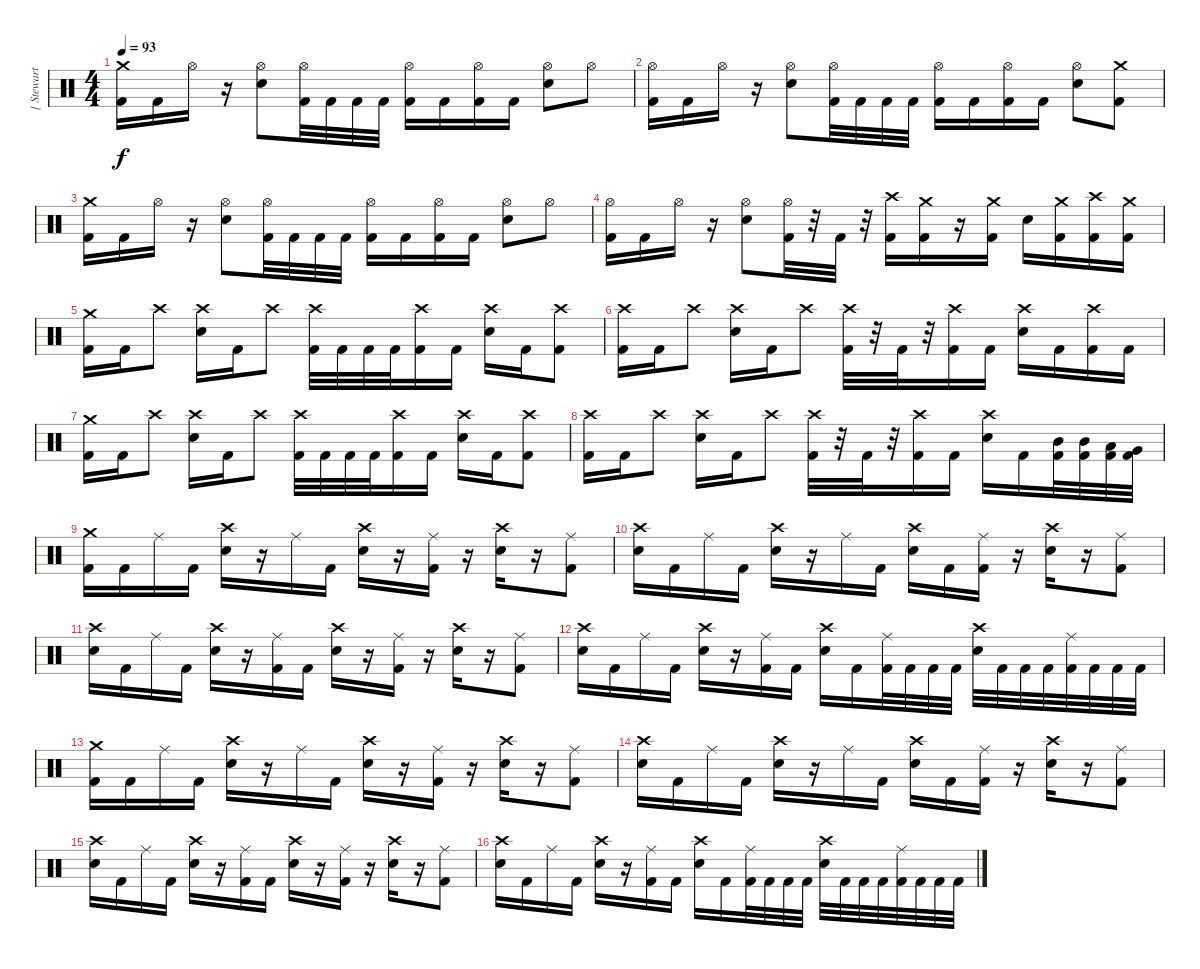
\track ("[ Stewart ]" "[ Stewart ") {instrument percussion}
\staff {score}
\articulation defaults
\ts (4 4)
\tempo 93
\clef neutral
\ks c
("Kick (hit) 2" "Crash medium (hit)").16{dy f} "Kick (hit) 2".16 "Hi-Hat (open)".16 r.16 ("Electric Snare (hit)" "Hi-Hat (open)").8 ("Kick (hit) 2" "Hi-Hat (open)").32 "Kick (hit) 2".32 "Kick (hit) 2".32 "Kick (hit) 2".32 ("Kick (hit) 2" "Hi-Hat (open)").16 "Kick (hit) 2".16 ("Kick (hit) 2" "Hi-Hat (open)").16 "Kick (hit) 2".16 ("Electric Snare (hit)" "Hi-Hat (open)").8 "Hi-Hat (open)".8 |
("Kick (hit) 2" "Hi-Hat (open)").16 "Kick (hit) 2".16 "Hi-Hat (open)".16 r.16 ("Electric Snare (hit)" "Hi-Hat (open)").8 ("Kick (hit) 2" "Hi-Hat (open)").32 "Kick (hit) 2".32 "Kick (hit) 2".32 "Kick (hit) 2".32 ("Kick (hit) 2" "Hi-Hat (open)").16 "Kick (hit) 2".16 ("Kick (hit) 2" "Hi-Hat (open)").16 "Kick (hit) 2".16 ("Electric Snare (hit)" "Hi-Hat (open)").8 ("Kick (hit) 2" "Crash medium (hit)").8 |
("Kick (hit) 2" "Crash medium (hit)").16 "Kick (hit) 2".16 "Hi-Hat (open)".16 r.16 ("Electric Snare (hit)" "Hi-Hat (open)").8 ("Kick (hit) 2" "Hi-Hat (open)").32 "Kick (hit) 2".32 "Kick (hit) 2".32 "Kick (hit) 2".32 ("Kick (hit) 2" "Hi-Hat (open)").16 "Kick (hit) 2".16 ("Kick (hit) 2" "Hi-Hat (open)").16 "Kick (hit) 2".16 ("Electric Snare (hit)" "Hi-Hat (open)").8 "Hi-Hat (open)".8 |
("Kick (hit) 2" "Hi-Hat (open)").16 "Kick (hit) 2".16 "Hi-Hat (open)".16 r.16 ("Electric Snare (hit)" "Hi-Hat (open)").8 ("Kick (hit) 2" "Hi-Hat (open)").32 r.32 "Kick (hit) 2".32 r.32 ("Kick (hit) 2" "Crash high (hit)").16 ("Kick (hit) 2" "Crash medium (hit)").16 r.16 ("Kick (hit) 2" "Crash medium (hit)").16 "Electric Snare (hit)".16 ("Kick (hit) 2" "Crash medium (hit)").16 ("Kick (hit) 2" "Crash high (hit)").16 ("Kick (hit) 2" "Crash medium (hit)").16 |
("Kick (hit) 2" "Crash medium (hit)").16 "Kick (hit) 2".16 "Crash high (hit)".8 ("Electric Snare (hit)" "Crash high (hit)").16 "Kick (hit) 2".16 "Crash high (hit)".8 ("Kick (hit) 2" "Crash high (hit)").32 "Kick (hit) 2".32 "Kick (hit) 2".32 "Kick (hit) 2".32 ("Kick (hit) 2" "Crash high (hit)").16 "Kick (hit) 2".16 ("Electric Snare (hit)" "Crash high (hit)").16 "Kick (hit) 2".16 ("Kick (hit) 2" "Crash high (hit)").8 |
("Kick (hit) 2" "Crash high (hit)").16 "Kick (hit) 2".16 "Crash high (hit)".8 ("Electric Snare (hit)" "Crash high (hit)").16 "Kick (hit) 2".16 "Crash high (hit)".8 ("Kick (hit) 2" "Crash high (hit)").32 r.32 "Kick (hit) 2".32 r.32 ("Kick (hit) 2" "Crash high (hit)").16 "Kick (hit) 2".16 ("Electric Snare (hit)" "Crash high (hit)").16 "Kick (hit) 2".16 ("Kick (hit) 2" "Crash high (hit)").16 "Kick (hit) 2".16 |
("Kick (hit) 2" "Crash medium (hit)").16 "Kick (hit) 2".16 "Crash high (hit)".8 ("Electric Snare (hit)" "Crash high (hit)").16 "Kick (hit) 2".16 "Crash high (hit)".8 ("Kick (hit) 2" "Crash high (hit)").32 "Kick (hit) 2".32 "Kick (hit) 2".32 "Kick (hit) 2".32 ("Kick (hit) 2" "Crash high (hit)").16 "Kick (hit) 2".16 ("Electric Snare (hit)" "Crash high (hit)").16 "Kick (hit) 2".16 ("Kick (hit) 2" "Crash high (hit)").8 |
("Kick (hit) 2" "Crash high (hit)").16 "Kick (hit) 2".16 "Crash high (hit)".8 ("Electric Snare (hit)" "Crash high (hit)").16 "Kick (hit) 2".16 "Crash high (hit)".8 ("Kick (hit) 2" "Crash high (hit)").32 r.32 "Kick (hit) 2".32 r.32 ("Kick (hit) 2" "Crash high (hit)").16 "Kick (hit) 2".16 ("Electric Snare (hit)" "Crash high (hit)").16 "Kick (hit) 2".16 ("Mid Tom (hit)" "Kick (hit) 2").32 ("Mid Tom (hit)" "Kick (hit) 2").32 ("Low Tom (hit)" "Kick (hit) 2").32 ("Very Low Tom (hit)" "Kick (hit) 2").32 |
("Kick (hit) 2" "Crash medium (hit)").16 "Kick (hit) 2".16 "Ride (middle)".16 "Kick (hit) 2".16 ("Electric Snare (hit)" "Crash high (hit)").16 r.16 "Ride (middle)".16 "Kick (hit) 2".16 ("Electric Snare (hit)" "Crash high (hit)").16 r.16 ("Kick (hit) 2" "Ride (middle)").16 r.16 ("Electric Snare (hit)" "Crash high (hit)").16 r.16 ("Kick (hit) 2" "Ride (middle)").8 |
("Electric Snare (hit)" "Crash high (hit)").16 "Kick (hit) 2".16 "Ride (middle)".16 "Kick (hit) 2".16 ("Electric Snare (hit)" "Crash high (hit)").16 r.16 "Ride (middle)".16 "Kick (hit) 2".16 ("Electric Snare (hit)" "Crash high (hit)").16 "Kick (hit) 2".16 ("Kick (hit) 2" "Ride (middle)").16 r.16 ("Electric Snare (hit)" "Crash high (hit)").16 r.16 ("Kick (hit) 2" "Ride (middle)").8 |
("Electric Snare (hit)" "Crash high (hit)").16 "Kick (hit) 2".16 "Ride (middle)".16 "Kick (hit) 2".16 ("Electric Snare (hit)" "Crash high (hit)").16 r.16 ("Kick (hit) 2" "Ride (middle)").16 "Kick (hit) 2".16 ("Electric Snare (hit)" "Crash high (hit)").16 r.16 ("Kick (hit) 2" "Ride (middle)").16 r.16 ("Electric Snare (hit)" "Crash high (hit)").16 r.16 ("Kick (hit) 2" "Ride (middle)").8 |
("Electric Snare (hit)" "Crash high (hit)").16 "Kick (hit) 2".16 "Ride (middle)".16 "Kick (hit) 2".16 ("Electric Snare (hit)" "Crash high (hit)").16 r.16 ("Kick (hit) 2" "Ride (middle)").16 "Kick (hit) 2".16 ("Electric Snare (hit)" "Crash high (hit)").16 "Kick (hit) 2".16 ("Kick (hit) 2" "Ride (middle)").32 "Kick (hit) 2".32 "Kick (hit) 2".32 "Kick (hit) 2".32 ("Electric Snare (hit)" "Crash high (hit)").32 "Kick (hit) 2".32 "Kick (hit) 2".32 "Kick (hit) 2".32 ("Kick (hit) 2" "Ride (middle)").32 "Kick (hit) 2".32 "Kick (hit) 2".32 "Kick (hit) 2".32 |
("Kick (hit) 2" "Crash medium (hit)").16 "Kick (hit) 2".16 "Ride (middle)".16 "Kick (hit) 2".16 ("Electric Snare (hit)" "Crash high (hit)").16 r.16 "Ride (middle)".16 "Kick (hit) 2".16 ("Electric Snare (hit)" "Crash high (hit)").16 r.16 ("Kick (hit) 2" "Ride (middle)").16 r.16 ("Electric Snare (hit)" "Crash high (hit)").16 r.16 ("Kick (hit) 2" "Ride (middle)").8 |
("Electric Snare (hit)" "Crash high (hit)").16 "Kick (hit) 2".16 "Ride (middle)".16 "Kick (hit) 2".16 ("Electric Snare (hit)" "Crash high (hit)").16 r.16 "Ride (middle)".16 "Kick (hit) 2".16 ("Electric Snare (hit)" "Crash high (hit)").16 "Kick (hit) 2".16 ("Kick (hit) 2" "Ride (middle)").16 r.16 ("Electric Snare (hit)" "Crash high (hit)").16 r.16 ("Kick (hit) 2" "Ride (middle)").8 |
("Electric Snare (hit)" "Crash high (hit)").16 "Kick (hit) 2".16 "Ride (middle)".16 "Kick (hit) 2".16 ("Electric Snare (hit)" "Crash high (hit)").16 r.16 ("Kick (hit) 2" "Ride (middle)").16 "Kick (hit) 2".16 ("Electric Snare (hit)" "Crash high (hit)").16 r.16 ("Kick (hit) 2" "Ride (middle)").16 r.16 ("Electric Snare (hit)" "Crash high (hit)").16 r.16 ("Kick (hit) 2" "Ride (middle)").8 |
("Electric Snare (hit)" "Crash high (hit)").16 "Kick (hit) 2".16 "Ride (middle)".16 "Kick (hit) 2".16 ("Electric Snare (hit)" "Crash high (hit)").16 r.16 ("Kick (hit) 2" "Ride (middle)").16 "Kick (hit) 2".16 ("Electric Snare (hit)" "Crash high (hit)").16 "Kick (hit) 2".16 ("Kick (hit) 2" "Ride (middle)").32 "Kick (hit) 2".32 "Kick (hit) 2".32 "Kick (hit) 2".32 ("Electric Snare (hit)" "Crash high (hit)").32 "Kick (hit) 2".32 "Kick (hit) 2".32 "Kick (hit) 2".32 ("Kick (hit) 2" "Ride (middle)").32 "Kick (hit) 2".32 "Kick (hit) 2".32 "Kick (hit) 2".32
